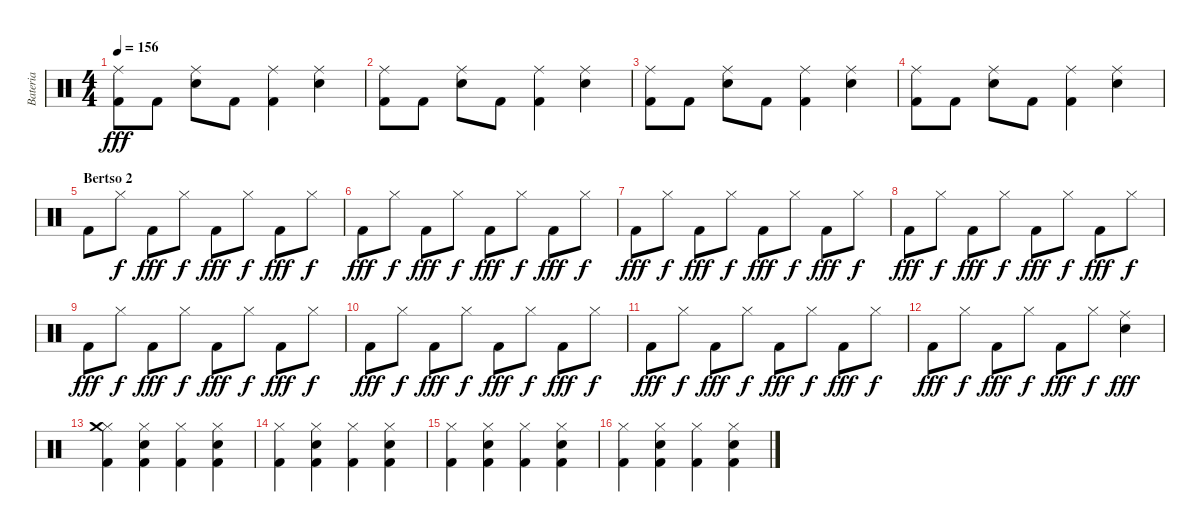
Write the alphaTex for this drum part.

\track ("Bateria" "Bateria") {instrument percussion}
\staff {score}
\articulation defaults
\ts (4 4)
\tempo 156
\clef neutral
\ks c
("Ride (middle)" "Kick (hit) 2").8{dy fff} "Kick (hit) 2".8 ("Ride (middle)" "Electric Snare (hit)").8 "Kick (hit) 2".8 ("Ride (middle)" "Kick (hit) 2").4 ("Ride (middle)" "Electric Snare (hit)").4 |
("Ride (middle)" "Kick (hit) 2").8 "Kick (hit) 2".8 ("Ride (middle)" "Electric Snare (hit)").8 "Kick (hit) 2".8 ("Ride (middle)" "Kick (hit) 2").4 ("Ride (middle)" "Electric Snare (hit)").4 |
("Ride (middle)" "Kick (hit) 2").8 "Kick (hit) 2".8 ("Ride (middle)" "Electric Snare (hit)").8 "Kick (hit) 2".8 ("Ride (middle)" "Kick (hit) 2").4 ("Ride (middle)" "Electric Snare (hit)").4 |
("Ride (middle)" "Kick (hit) 2").8 "Kick (hit) 2".8 ("Ride (middle)" "Electric Snare (hit)").8 "Kick (hit) 2".8 ("Ride (middle)" "Kick (hit) 2").4 ("Ride (middle)" "Electric Snare (hit)").4 |
\section ("" "Bertso 2")
"Kick (hit) 2".8 "Hi-Hat (closed)".8{dy f} "Kick (hit) 2".8{dy fff} "Hi-Hat (closed)".8{dy f} "Kick (hit) 2".8{dy fff} "Hi-Hat (closed)".8{dy f} "Kick (hit) 2".8{dy fff} "Hi-Hat (closed)".8{dy f} |
"Kick (hit) 2".8{dy fff} "Hi-Hat (closed)".8{dy f} "Kick (hit) 2".8{dy fff} "Hi-Hat (closed)".8{dy f} "Kick (hit) 2".8{dy fff} "Hi-Hat (closed)".8{dy f} "Kick (hit) 2".8{dy fff} "Hi-Hat (closed)".8{dy f} |
"Kick (hit) 2".8{dy fff} "Hi-Hat (closed)".8{dy f} "Kick (hit) 2".8{dy fff} "Hi-Hat (closed)".8{dy f} "Kick (hit) 2".8{dy fff} "Hi-Hat (closed)".8{dy f} "Kick (hit) 2".8{dy fff} "Hi-Hat (closed)".8{dy f} |
"Kick (hit) 2".8{dy fff} "Hi-Hat (closed)".8{dy f} "Kick (hit) 2".8{dy fff} "Hi-Hat (closed)".8{dy f} "Kick (hit) 2".8{dy fff} "Hi-Hat (closed)".8{dy f} "Kick (hit) 2".8{dy fff} "Hi-Hat (closed)".8{dy f} |
"Kick (hit) 2".8{dy fff} "Hi-Hat (closed)".8{dy f} "Kick (hit) 2".8{dy fff} "Hi-Hat (closed)".8{dy f} "Kick (hit) 2".8{dy fff} "Hi-Hat (closed)".8{dy f} "Kick (hit) 2".8{dy fff} "Hi-Hat (closed)".8{dy f} |
"Kick (hit) 2".8{dy fff} "Hi-Hat (closed)".8{dy f} "Kick (hit) 2".8{dy fff} "Hi-Hat (closed)".8{dy f} "Kick (hit) 2".8{dy fff} "Hi-Hat (closed)".8{dy f} "Kick (hit) 2".8{dy fff} "Hi-Hat (closed)".8{dy f} |
"Kick (hit) 2".8{dy fff} "Hi-Hat (closed)".8{dy f} "Kick (hit) 2".8{dy fff} "Hi-Hat (closed)".8{dy f} "Kick (hit) 2".8{dy fff} "Hi-Hat (closed)".8{dy f} "Kick (hit) 2".8{dy fff} "Hi-Hat (closed)".8{dy f} |
"Kick (hit) 2".8{dy fff} "Hi-Hat (closed)".8{dy f} "Kick (hit) 2".8{dy fff} "Hi-Hat (closed)".8{dy f} "Kick (hit) 2".8{dy fff} "Hi-Hat (closed)".8{dy f} ("Ride (middle)" "Electric Snare (hit)").4{dy fff} |
("Hi-Hat (closed)" "Kick (hit) 2" "Crash medium (hit)").4 ("Hi-Hat (closed)" "Kick (hit) 2" "Electric Snare (hit)").4 ("Hi-Hat (closed)" "Kick (hit) 2").4 ("Hi-Hat (closed)" "Kick (hit) 2" "Electric Snare (hit)").4 |
("Hi-Hat (closed)" "Kick (hit) 2").4 ("Hi-Hat (closed)" "Kick (hit) 2" "Electric Snare (hit)").4 ("Hi-Hat (closed)" "Kick (hit) 2").4 ("Hi-Hat (closed)" "Kick (hit) 2" "Electric Snare (hit)").4 |
("Hi-Hat (closed)" "Kick (hit) 2").4 ("Hi-Hat (closed)" "Kick (hit) 2" "Electric Snare (hit)").4 ("Hi-Hat (closed)" "Kick (hit) 2").4 ("Hi-Hat (closed)" "Kick (hit) 2" "Electric Snare (hit)").4 |
("Hi-Hat (closed)" "Kick (hit) 2").4 ("Hi-Hat (closed)" "Kick (hit) 2" "Electric Snare (hit)").4 ("Hi-Hat (closed)" "Kick (hit) 2").4 ("Hi-Hat (closed)" "Kick (hit) 2" "Electric Snare (hit)").4
